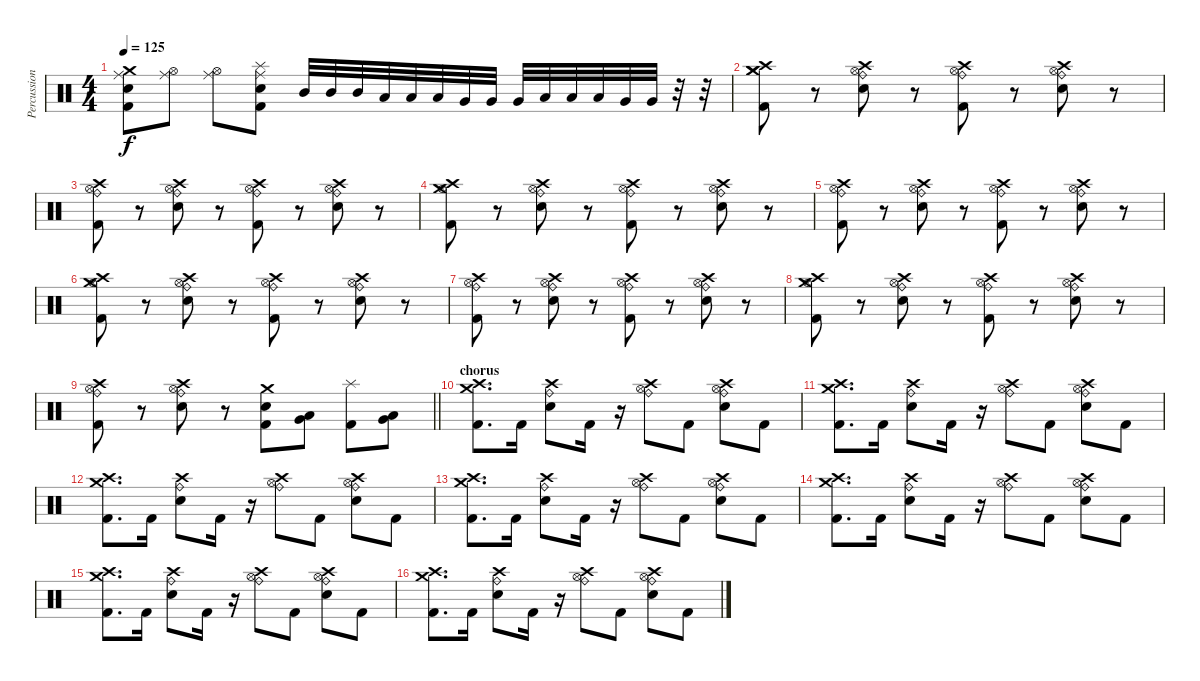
\track ("Percussion" "Percussion") {instrument percussion}
\staff {score}
\articulation defaults
\ts (4 4)
\tempo 125
\clef neutral
\ks c
("Crash medium (hit)" "Ride (middle)" "Kick (hit) 2" "Electric Snare (hit)").8{dy f} ("Hi-Hat (open)" "Ride (middle)").8 ("Hi-Hat (open)" "Ride (middle)").8 ("Splash (hit)" "Ride (middle)" "Kick (hit) 2" "Electric Snare (hit)").8 "Mid Tom (hit)".32 "Mid Tom (hit)".32 "Mid Tom (hit)".32 "Low Tom (hit)".32 "Low Tom (hit)".32 "Low Tom (hit)".32 "Very Low Tom (hit)".32 "Very Low Tom (hit)".32 "Very Low Tom (hit)".32 "Low Floor Tom (hit)".32 "Low Floor Tom (hit)".32 "Low Floor Tom (hit)".32 "Very Low Tom (hit)".32 "Very Low Tom (hit)".32 r.32 r.32 |
("Crash medium (hit)" "Crash medium (hit)" "Crash high (hit)" "Kick (hit) 2").8 r.8 ("Ride (bell)" "Hi-Hat (open)" "Crash high (hit)" "Electric Snare (hit)").8 r.8 ("Ride (bell)" "Hi-Hat (open)" "Crash high (hit)" "Kick (hit) 2").8 r.8 ("Ride (bell)" "Hi-Hat (open)" "Crash high (hit)" "Electric Snare (hit)").8 r.8 |
("Ride (bell)" "Hi-Hat (open)" "Crash high (hit)" "Kick (hit) 2").8 r.8 ("Ride (bell)" "Hi-Hat (open)" "Crash high (hit)" "Electric Snare (hit)").8 r.8 ("Ride (bell)" "Hi-Hat (open)" "Crash high (hit)" "Kick (hit) 2").8 r.8 ("Ride (bell)" "Hi-Hat (open)" "Crash high (hit)" "Electric Snare (hit)").8 r.8 |
("Crash medium (hit)" "Hi-Hat (open)" "Crash high (hit)" "Kick (hit) 2").8 r.8 ("Ride (bell)" "Hi-Hat (open)" "Crash high (hit)" "Electric Snare (hit)").8 r.8 ("Ride (bell)" "Hi-Hat (open)" "Crash high (hit)" "Kick (hit) 2").8 r.8 ("Ride (bell)" "Hi-Hat (open)" "Crash high (hit)" "Electric Snare (hit)").8 r.8 |
("Ride (bell)" "Hi-Hat (open)" "Crash high (hit)" "Kick (hit) 2").8 r.8 ("Ride (bell)" "Hi-Hat (open)" "Crash high (hit)" "Electric Snare (hit)").8 r.8 ("Ride (bell)" "Hi-Hat (open)" "Crash high (hit)" "Kick (hit) 2").8 r.8 ("Ride (bell)" "Hi-Hat (open)" "Crash high (hit)" "Electric Snare (hit)").8 r.8 |
("Crash medium (hit)" "Hi-Hat (open)" "Crash high (hit)" "Kick (hit) 2").8 r.8 ("Ride (bell)" "Hi-Hat (open)" "Crash high (hit)" "Electric Snare (hit)").8 r.8 ("Ride (bell)" "Hi-Hat (open)" "Crash high (hit)" "Kick (hit) 2").8 r.8 ("Ride (bell)" "Hi-Hat (open)" "Crash high (hit)" "Electric Snare (hit)").8 r.8 |
("Ride (bell)" "Hi-Hat (open)" "Crash high (hit)" "Kick (hit) 2").8 r.8 ("Ride (bell)" "Hi-Hat (open)" "Crash high (hit)" "Electric Snare (hit)").8 r.8 ("Ride (bell)" "Hi-Hat (open)" "Crash high (hit)" "Kick (hit) 2").8 r.8 ("Ride (bell)" "Hi-Hat (open)" "Crash high (hit)" "Electric Snare (hit)").8 r.8 |
("Crash medium (hit)" "Hi-Hat (open)" "Crash high (hit)" "Kick (hit) 2").8 r.8 ("Ride (bell)" "Hi-Hat (open)" "Crash high (hit)" "Electric Snare (hit)").8 r.8 ("Ride (bell)" "Hi-Hat (open)" "Crash high (hit)" "Kick (hit) 2").8 r.8 ("Ride (bell)" "Hi-Hat (open)" "Crash high (hit)" "Electric Snare (hit)").8 r.8 |
\barLineRight lightlight
("Ride (bell)" "Hi-Hat (open)" "Crash high (hit)" "Kick (hit) 2").8 r.8 ("Ride (bell)" "Hi-Hat (open)" "Crash high (hit)" "Electric Snare (hit)").8 r.8 ("Kick (hit) 2" "Electric Snare (hit)" "Crash medium (hit)").8 ("Low Tom (hit)" "Very Low Tom (hit)").8 ("Kick (hit) 2" "Splash (hit)").8 ("Very Low Tom (hit)" "Low Floor Tom (hit)").8 |
\section ("" "chorus")
("Crash medium (hit)" "Crash high (hit)" "Kick (hit) 2").8{d} "Kick (hit) 2".16 ("Ride (bell)" "Crash high (hit)" "Electric Snare (hit)").8 "Kick (hit) 2".16 r.16 ("Ride (bell)" "Crash high (hit)" "Hi-Hat (open)").8 "Kick (hit) 2".8 ("Ride (bell)" "Crash high (hit)" "Hi-Hat (open)" "Electric Snare (hit)").8 "Kick (hit) 2".8 |
("Crash medium (hit)" "Crash high (hit)" "Kick (hit) 2").8{d} "Kick (hit) 2".16 ("Ride (bell)" "Crash high (hit)" "Electric Snare (hit)").8 "Kick (hit) 2".16 r.16 ("Ride (bell)" "Crash high (hit)" "Hi-Hat (open)").8 "Kick (hit) 2".8 ("Ride (bell)" "Crash high (hit)" "Hi-Hat (open)" "Electric Snare (hit)").8 "Kick (hit) 2".8 |
("Crash medium (hit)" "Crash high (hit)" "Kick (hit) 2").8{d} "Kick (hit) 2".16 ("Ride (bell)" "Crash high (hit)" "Electric Snare (hit)").8 "Kick (hit) 2".16 r.16 ("Ride (bell)" "Crash high (hit)" "Hi-Hat (open)").8 "Kick (hit) 2".8 ("Ride (bell)" "Crash high (hit)" "Hi-Hat (open)" "Electric Snare (hit)").8 "Kick (hit) 2".8 |
("Crash medium (hit)" "Crash high (hit)" "Kick (hit) 2").8{d} "Kick (hit) 2".16 ("Ride (bell)" "Crash high (hit)" "Electric Snare (hit)").8 "Kick (hit) 2".16 r.16 ("Ride (bell)" "Crash high (hit)" "Hi-Hat (open)").8 "Kick (hit) 2".8 ("Ride (bell)" "Crash high (hit)" "Hi-Hat (open)" "Electric Snare (hit)").8 "Kick (hit) 2".8 |
("Crash medium (hit)" "Crash high (hit)" "Kick (hit) 2").8{d} "Kick (hit) 2".16 ("Ride (bell)" "Crash high (hit)" "Electric Snare (hit)").8 "Kick (hit) 2".16 r.16 ("Ride (bell)" "Crash high (hit)" "Hi-Hat (open)").8 "Kick (hit) 2".8 ("Ride (bell)" "Crash high (hit)" "Hi-Hat (open)" "Electric Snare (hit)").8 "Kick (hit) 2".8 |
("Crash medium (hit)" "Crash high (hit)" "Kick (hit) 2").8{d} "Kick (hit) 2".16 ("Ride (bell)" "Crash high (hit)" "Electric Snare (hit)").8 "Kick (hit) 2".16 r.16 ("Ride (bell)" "Crash high (hit)" "Hi-Hat (open)").8 "Kick (hit) 2".8 ("Ride (bell)" "Crash high (hit)" "Hi-Hat (open)" "Electric Snare (hit)").8 "Kick (hit) 2".8 |
("Crash medium (hit)" "Crash high (hit)" "Kick (hit) 2").8{d} "Kick (hit) 2".16 ("Ride (bell)" "Crash high (hit)" "Electric Snare (hit)").8 "Kick (hit) 2".16 r.16 ("Ride (bell)" "Crash high (hit)" "Hi-Hat (open)").8 "Kick (hit) 2".8 ("Ride (bell)" "Crash high (hit)" "Hi-Hat (open)" "Electric Snare (hit)").8 "Kick (hit) 2".8
